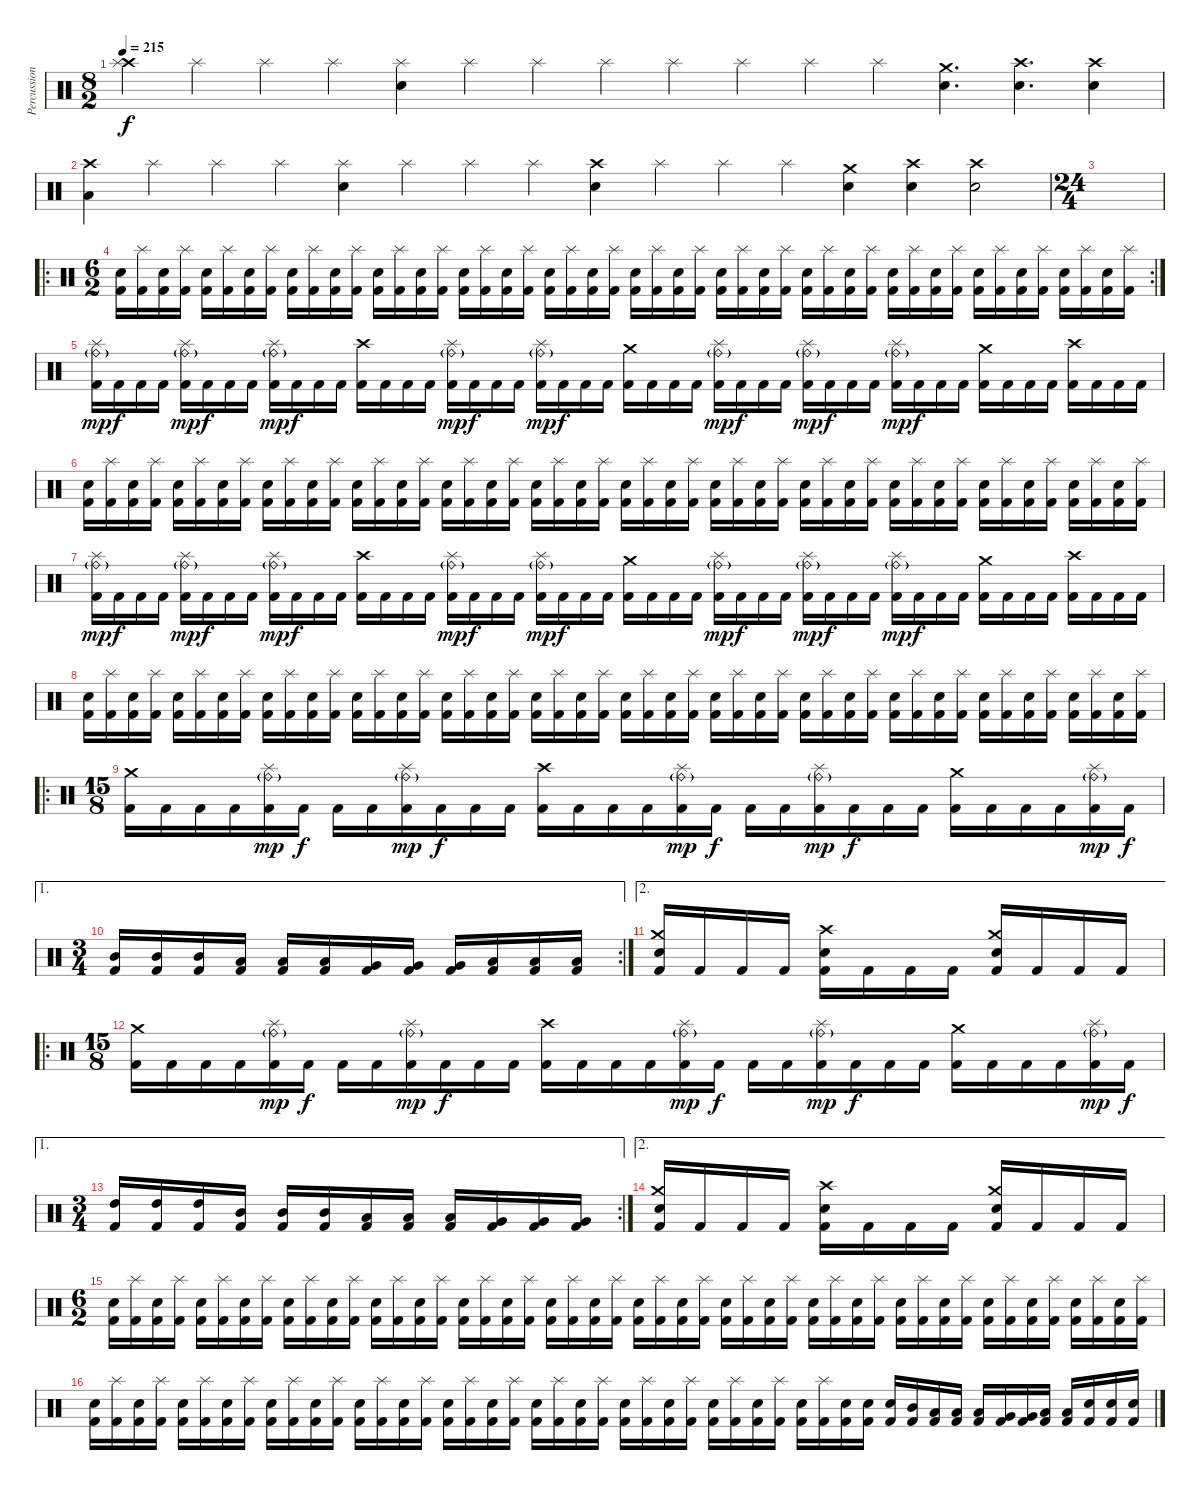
\track ("Percussions" "Percussion") {instrument percussion}
\staff {score}
\articulation defaults
\ts (8 2)
\tempo 215
\clef neutral
\ks c
("Crash high (hit)" "Splash (hit)").4{dy f} "Splash (hit)".4 "Splash (hit)".4 "Splash (hit)".4 ("Splash (hit)" "Electric Snare (hit)").4 "Splash (hit)".4 "Splash (hit)".4 "Splash (hit)".4 "Splash (hit)".4 "Splash (hit)".4 "Splash (hit)".4 "Splash (hit)".4 ("Crash medium (hit)" "Electric Snare (hit)").4{d} ("Crash high (hit)" "Electric Snare (hit)").4{d} ("Crash high (hit)" "Electric Snare (hit)").4 |
("Crash high (hit)" "Low Floor Tom (hit)").4 "Splash (hit)".4 "Splash (hit)".4 "Splash (hit)".4 ("Splash (hit)" "Electric Snare (hit)").4 "Splash (hit)".4 "Splash (hit)".4 "Splash (hit)".4 ("Crash high (hit)" "Electric Snare (hit)").4 "Splash (hit)".4 "Splash (hit)".4 "Splash (hit)".4 ("Crash medium (hit)" "Electric Snare (hit)").4 ("Crash high (hit)" "Electric Snare (hit)").4 ("Crash high (hit)" "Electric Snare (hit)").2 |
\ts (24 4)
|
\ro
\rc 2
\ts (6 2)
("Electric Snare (hit)" "Kick (hit) 2").16 ("Splash (hit)" "Kick (hit) 2").16 ("Electric Snare (hit)" "Kick (hit) 2").16 ("Splash (hit)" "Kick (hit) 2").16 ("Electric Snare (hit)" "Kick (hit) 2").16 ("Splash (hit)" "Kick (hit) 2").16 ("Electric Snare (hit)" "Kick (hit) 2").16 ("Splash (hit)" "Kick (hit) 2").16 ("Electric Snare (hit)" "Kick (hit) 2").16 ("Splash (hit)" "Kick (hit) 2").16 ("Electric Snare (hit)" "Kick (hit) 2").16 ("Splash (hit)" "Kick (hit) 2").16 ("Electric Snare (hit)" "Kick (hit) 2").16 ("Splash (hit)" "Kick (hit) 2").16 ("Electric Snare (hit)" "Kick (hit) 2").16 ("Splash (hit)" "Kick (hit) 2").16 ("Electric Snare (hit)" "Kick (hit) 2").16 ("Splash (hit)" "Kick (hit) 2").16 ("Electric Snare (hit)" "Kick (hit) 2").16 ("Splash (hit)" "Kick (hit) 2").16 ("Electric Snare (hit)" "Kick (hit) 2").16 ("Splash (hit)" "Kick (hit) 2").16 ("Electric Snare (hit)" "Kick (hit) 2").16 ("Splash (hit)" "Kick (hit) 2").16 ("Electric Snare (hit)" "Kick (hit) 2").16 ("Splash (hit)" "Kick (hit) 2").16 ("Electric Snare (hit)" "Kick (hit) 2").16 ("Splash (hit)" "Kick (hit) 2").16 ("Electric Snare (hit)" "Kick (hit) 2").16 ("Splash (hit)" "Kick (hit) 2").16 ("Electric Snare (hit)" "Kick (hit) 2").16 ("Splash (hit)" "Kick (hit) 2").16 ("Electric Snare (hit)" "Kick (hit) 2").16 ("Splash (hit)" "Kick (hit) 2").16 ("Electric Snare (hit)" "Kick (hit) 2").16 ("Splash (hit)" "Kick (hit) 2").16 ("Electric Snare (hit)" "Kick (hit) 2").16 ("Splash (hit)" "Kick (hit) 2").16 ("Electric Snare (hit)" "Kick (hit) 2").16 ("Splash (hit)" "Kick (hit) 2").16 ("Electric Snare (hit)" "Kick (hit) 2").16 ("Splash (hit)" "Kick (hit) 2").16 ("Electric Snare (hit)" "Kick (hit) 2").16 ("Splash (hit)" "Kick (hit) 2").16 ("Electric Snare (hit)" "Kick (hit) 2").16 ("Splash (hit)" "Kick (hit) 2").16 ("Electric Snare (hit)" "Kick (hit) 2").16 ("Splash (hit)" "Kick (hit) 2").16 |
("Splash (hit)" "Ride (bell)"{g} "Kick (hit) 2").16{dy mp} "Kick (hit) 2".16{dy f} "Kick (hit) 2".16 "Kick (hit) 2".16 ("Splash (hit)" "Ride (bell)"{g} "Kick (hit) 2").16{dy mp} "Kick (hit) 2".16{dy f} "Kick (hit) 2".16 "Kick (hit) 2".16 ("Splash (hit)" "Ride (bell)"{g} "Kick (hit) 2").16{dy mp} "Kick (hit) 2".16{dy f} "Kick (hit) 2".16 "Kick (hit) 2".16 ("Crash high (hit)" "Kick (hit) 2").16 "Kick (hit) 2".16 "Kick (hit) 2".16 "Kick (hit) 2".16 ("Splash (hit)" "Ride (bell)"{g} "Kick (hit) 2").16{dy mp} "Kick (hit) 2".16{dy f} "Kick (hit) 2".16 "Kick (hit) 2".16 ("Splash (hit)" "Ride (bell)"{g} "Kick (hit) 2").16{dy mp} "Kick (hit) 2".16{dy f} "Kick (hit) 2".16 "Kick (hit) 2".16 ("Crash medium (hit)" "Kick (hit) 2").16 "Kick (hit) 2".16 "Kick (hit) 2".16 "Kick (hit) 2".16 ("Splash (hit)" "Ride (bell)"{g} "Kick (hit) 2").16{dy mp} "Kick (hit) 2".16{dy f} "Kick (hit) 2".16 "Kick (hit) 2".16 ("Splash (hit)" "Ride (bell)"{g} "Kick (hit) 2").16{dy mp} "Kick (hit) 2".16{dy f} "Kick (hit) 2".16 "Kick (hit) 2".16 ("Splash (hit)" "Ride (bell)"{g} "Kick (hit) 2").16{dy mp} "Kick (hit) 2".16{dy f} "Kick (hit) 2".16 "Kick (hit) 2".16 ("Crash medium (hit)" "Kick (hit) 2").16 "Kick (hit) 2".16 "Kick (hit) 2".16 "Kick (hit) 2".16 ("Crash high (hit)" "Kick (hit) 2").16 "Kick (hit) 2".16 "Kick (hit) 2".16 "Kick (hit) 2".16 |
("Electric Snare (hit)" "Kick (hit) 2").16 ("Splash (hit)" "Kick (hit) 2").16 ("Electric Snare (hit)" "Kick (hit) 2").16 ("Splash (hit)" "Kick (hit) 2").16 ("Electric Snare (hit)" "Kick (hit) 2").16 ("Splash (hit)" "Kick (hit) 2").16 ("Electric Snare (hit)" "Kick (hit) 2").16 ("Splash (hit)" "Kick (hit) 2").16 ("Electric Snare (hit)" "Kick (hit) 2").16 ("Splash (hit)" "Kick (hit) 2").16 ("Electric Snare (hit)" "Kick (hit) 2").16 ("Splash (hit)" "Kick (hit) 2").16 ("Electric Snare (hit)" "Kick (hit) 2").16 ("Splash (hit)" "Kick (hit) 2").16 ("Electric Snare (hit)" "Kick (hit) 2").16 ("Splash (hit)" "Kick (hit) 2").16 ("Electric Snare (hit)" "Kick (hit) 2").16 ("Splash (hit)" "Kick (hit) 2").16 ("Electric Snare (hit)" "Kick (hit) 2").16 ("Splash (hit)" "Kick (hit) 2").16 ("Electric Snare (hit)" "Kick (hit) 2").16 ("Splash (hit)" "Kick (hit) 2").16 ("Electric Snare (hit)" "Kick (hit) 2").16 ("Splash (hit)" "Kick (hit) 2").16 ("Electric Snare (hit)" "Kick (hit) 2").16 ("Splash (hit)" "Kick (hit) 2").16 ("Electric Snare (hit)" "Kick (hit) 2").16 ("Splash (hit)" "Kick (hit) 2").16 ("Electric Snare (hit)" "Kick (hit) 2").16 ("Splash (hit)" "Kick (hit) 2").16 ("Electric Snare (hit)" "Kick (hit) 2").16 ("Splash (hit)" "Kick (hit) 2").16 ("Electric Snare (hit)" "Kick (hit) 2").16 ("Splash (hit)" "Kick (hit) 2").16 ("Electric Snare (hit)" "Kick (hit) 2").16 ("Splash (hit)" "Kick (hit) 2").16 ("Electric Snare (hit)" "Kick (hit) 2").16 ("Splash (hit)" "Kick (hit) 2").16 ("Electric Snare (hit)" "Kick (hit) 2").16 ("Splash (hit)" "Kick (hit) 2").16 ("Electric Snare (hit)" "Kick (hit) 2").16 ("Splash (hit)" "Kick (hit) 2").16 ("Electric Snare (hit)" "Kick (hit) 2").16 ("Splash (hit)" "Kick (hit) 2").16 ("Electric Snare (hit)" "Kick (hit) 2").16 ("Splash (hit)" "Kick (hit) 2").16 ("Electric Snare (hit)" "Kick (hit) 2").16 ("Splash (hit)" "Kick (hit) 2").16 |
("Splash (hit)" "Ride (bell)"{g} "Kick (hit) 2").16{dy mp} "Kick (hit) 2".16{dy f} "Kick (hit) 2".16 "Kick (hit) 2".16 ("Splash (hit)" "Ride (bell)"{g} "Kick (hit) 2").16{dy mp} "Kick (hit) 2".16{dy f} "Kick (hit) 2".16 "Kick (hit) 2".16 ("Splash (hit)" "Ride (bell)"{g} "Kick (hit) 2").16{dy mp} "Kick (hit) 2".16{dy f} "Kick (hit) 2".16 "Kick (hit) 2".16 ("Crash high (hit)" "Kick (hit) 2").16 "Kick (hit) 2".16 "Kick (hit) 2".16 "Kick (hit) 2".16 ("Splash (hit)" "Ride (bell)"{g} "Kick (hit) 2").16{dy mp} "Kick (hit) 2".16{dy f} "Kick (hit) 2".16 "Kick (hit) 2".16 ("Splash (hit)" "Ride (bell)"{g} "Kick (hit) 2").16{dy mp} "Kick (hit) 2".16{dy f} "Kick (hit) 2".16 "Kick (hit) 2".16 ("Crash medium (hit)" "Kick (hit) 2").16 "Kick (hit) 2".16 "Kick (hit) 2".16 "Kick (hit) 2".16 ("Splash (hit)" "Ride (bell)"{g} "Kick (hit) 2").16{dy mp} "Kick (hit) 2".16{dy f} "Kick (hit) 2".16 "Kick (hit) 2".16 ("Splash (hit)" "Ride (bell)"{g} "Kick (hit) 2").16{dy mp} "Kick (hit) 2".16{dy f} "Kick (hit) 2".16 "Kick (hit) 2".16 ("Splash (hit)" "Ride (bell)"{g} "Kick (hit) 2").16{dy mp} "Kick (hit) 2".16{dy f} "Kick (hit) 2".16 "Kick (hit) 2".16 ("Crash medium (hit)" "Kick (hit) 2").16 "Kick (hit) 2".16 "Kick (hit) 2".16 "Kick (hit) 2".16 ("Crash high (hit)" "Kick (hit) 2").16 "Kick (hit) 2".16 "Kick (hit) 2".16 "Kick (hit) 2".16 |
("Electric Snare (hit)" "Kick (hit) 2").16 ("Splash (hit)" "Kick (hit) 2").16 ("Electric Snare (hit)" "Kick (hit) 2").16 ("Splash (hit)" "Kick (hit) 2").16 ("Electric Snare (hit)" "Kick (hit) 2").16 ("Splash (hit)" "Kick (hit) 2").16 ("Electric Snare (hit)" "Kick (hit) 2").16 ("Splash (hit)" "Kick (hit) 2").16 ("Electric Snare (hit)" "Kick (hit) 2").16 ("Splash (hit)" "Kick (hit) 2").16 ("Electric Snare (hit)" "Kick (hit) 2").16 ("Splash (hit)" "Kick (hit) 2").16 ("Electric Snare (hit)" "Kick (hit) 2").16 ("Splash (hit)" "Kick (hit) 2").16 ("Electric Snare (hit)" "Kick (hit) 2").16 ("Splash (hit)" "Kick (hit) 2").16 ("Electric Snare (hit)" "Kick (hit) 2").16 ("Splash (hit)" "Kick (hit) 2").16 ("Electric Snare (hit)" "Kick (hit) 2").16 ("Splash (hit)" "Kick (hit) 2").16 ("Electric Snare (hit)" "Kick (hit) 2").16 ("Splash (hit)" "Kick (hit) 2").16 ("Electric Snare (hit)" "Kick (hit) 2").16 ("Splash (hit)" "Kick (hit) 2").16 ("Electric Snare (hit)" "Kick (hit) 2").16 ("Splash (hit)" "Kick (hit) 2").16 ("Electric Snare (hit)" "Kick (hit) 2").16 ("Splash (hit)" "Kick (hit) 2").16 ("Electric Snare (hit)" "Kick (hit) 2").16 ("Splash (hit)" "Kick (hit) 2").16 ("Electric Snare (hit)" "Kick (hit) 2").16 ("Splash (hit)" "Kick (hit) 2").16 ("Electric Snare (hit)" "Kick (hit) 2").16 ("Splash (hit)" "Kick (hit) 2").16 ("Electric Snare (hit)" "Kick (hit) 2").16 ("Splash (hit)" "Kick (hit) 2").16 ("Electric Snare (hit)" "Kick (hit) 2").16 ("Splash (hit)" "Kick (hit) 2").16 ("Electric Snare (hit)" "Kick (hit) 2").16 ("Splash (hit)" "Kick (hit) 2").16 ("Electric Snare (hit)" "Kick (hit) 2").16 ("Splash (hit)" "Kick (hit) 2").16 ("Electric Snare (hit)" "Kick (hit) 2").16 ("Splash (hit)" "Kick (hit) 2").16 ("Electric Snare (hit)" "Kick (hit) 2").16 ("Splash (hit)" "Kick (hit) 2").16 ("Electric Snare (hit)" "Kick (hit) 2").16 ("Splash (hit)" "Kick (hit) 2").16 |
\ro
\ts (15 8)
("Crash medium (hit)" "Kick (hit) 2").16 "Kick (hit) 2".16 "Kick (hit) 2".16 "Kick (hit) 2".16 ("Splash (hit)" "Ride (bell)"{g} "Kick (hit) 2").16{dy mp} "Kick (hit) 2".16{dy f} "Kick (hit) 2".16 "Kick (hit) 2".16 ("Splash (hit)" "Ride (bell)"{g} "Kick (hit) 2").16{dy mp} "Kick (hit) 2".16{dy f} "Kick (hit) 2".16 "Kick (hit) 2".16 ("Crash high (hit)" "Kick (hit) 2").16 "Kick (hit) 2".16 "Kick (hit) 2".16 "Kick (hit) 2".16 ("Splash (hit)" "Ride (bell)"{g} "Kick (hit) 2").16{dy mp} "Kick (hit) 2".16{dy f} "Kick (hit) 2".16 "Kick (hit) 2".16 ("Splash (hit)" "Ride (bell)"{g} "Kick (hit) 2").16{dy mp} "Kick (hit) 2".16{dy f} "Kick (hit) 2".16 "Kick (hit) 2".16 ("Crash medium (hit)" "Kick (hit) 2").16 "Kick (hit) 2".16 "Kick (hit) 2".16 "Kick (hit) 2".16 ("Splash (hit)" "Ride (bell)"{g} "Kick (hit) 2").16{dy mp} "Kick (hit) 2".16{dy f} |
\ae 1
\rc 2
\ts (3 4)
("Mid Tom (hit)" "Kick (hit) 2").16 ("Mid Tom (hit)" "Kick (hit) 2").16 ("Mid Tom (hit)" "Kick (hit) 2").16 ("Low Tom (hit)" "Kick (hit) 2").16 ("Low Tom (hit)" "Kick (hit) 2").16 ("Low Tom (hit)" "Kick (hit) 2").16 ("Very Low Tom (hit)" "Kick (hit) 2").16 ("Very Low Tom (hit)" "Kick (hit) 2").16 ("Very Low Tom (hit)" "Kick (hit) 2").16 ("Low Floor Tom (hit)" "Kick (hit) 2").16 ("Low Floor Tom (hit)" "Kick (hit) 2").16 ("Low Floor Tom (hit)" "Kick (hit) 2").16 |
\ae 2
("Crash medium (hit)" "Electric Snare (hit)" "Kick (hit) 2").16 "Kick (hit) 2".16 "Kick (hit) 2".16 "Kick (hit) 2".16 ("Crash high (hit)" "Electric Snare (hit)" "Kick (hit) 2").16 "Kick (hit) 2".16 "Kick (hit) 2".16 "Kick (hit) 2".16 ("Crash medium (hit)" "Electric Snare (hit)" "Kick (hit) 2").16 "Kick (hit) 2".16 "Kick (hit) 2".16 "Kick (hit) 2".16 |
\ro
\ts (15 8)
("Crash medium (hit)" "Kick (hit) 2").16 "Kick (hit) 2".16 "Kick (hit) 2".16 "Kick (hit) 2".16 ("Splash (hit)" "Ride (bell)"{g} "Kick (hit) 2").16{dy mp} "Kick (hit) 2".16{dy f} "Kick (hit) 2".16 "Kick (hit) 2".16 ("Splash (hit)" "Ride (bell)"{g} "Kick (hit) 2").16{dy mp} "Kick (hit) 2".16{dy f} "Kick (hit) 2".16 "Kick (hit) 2".16 ("Crash high (hit)" "Kick (hit) 2").16 "Kick (hit) 2".16 "Kick (hit) 2".16 "Kick (hit) 2".16 ("Splash (hit)" "Ride (bell)"{g} "Kick (hit) 2").16{dy mp} "Kick (hit) 2".16{dy f} "Kick (hit) 2".16 "Kick (hit) 2".16 ("Splash (hit)" "Ride (bell)"{g} "Kick (hit) 2").16{dy mp} "Kick (hit) 2".16{dy f} "Kick (hit) 2".16 "Kick (hit) 2".16 ("Crash medium (hit)" "Kick (hit) 2").16 "Kick (hit) 2".16 "Kick (hit) 2".16 "Kick (hit) 2".16 ("Splash (hit)" "Ride (bell)"{g} "Kick (hit) 2").16{dy mp} "Kick (hit) 2".16{dy f} |
\ae 1
\rc 2
\ts (3 4)
("High Tom (hit)" "Kick (hit) 2").16 ("High Tom (hit)" "Kick (hit) 2").16 ("High Tom (hit)" "Kick (hit) 2").16 ("Mid Tom (hit)" "Kick (hit) 2").16 ("Mid Tom (hit)" "Kick (hit) 2").16 ("Mid Tom (hit)" "Kick (hit) 2").16 ("Low Tom (hit)" "Kick (hit) 2").16 ("Low Tom (hit)" "Kick (hit) 2").16 ("Low Tom (hit)" "Kick (hit) 2").16 ("Very Low Tom (hit)" "Kick (hit) 2").16 ("Very Low Tom (hit)" "Kick (hit) 2").16 ("Very Low Tom (hit)" "Kick (hit) 2").16 |
\ae 2
("Crash medium (hit)" "Electric Snare (hit)" "Kick (hit) 2").16 "Kick (hit) 2".16 "Kick (hit) 2".16 "Kick (hit) 2".16 ("Crash high (hit)" "Electric Snare (hit)" "Kick (hit) 2").16 "Kick (hit) 2".16 "Kick (hit) 2".16 "Kick (hit) 2".16 ("Crash medium (hit)" "Electric Snare (hit)" "Kick (hit) 2").16 "Kick (hit) 2".16 "Kick (hit) 2".16 "Kick (hit) 2".16 |
\ts (6 2)
("Electric Snare (hit)" "Kick (hit) 2").16 ("Splash (hit)" "Kick (hit) 2").16 ("Electric Snare (hit)" "Kick (hit) 2").16 ("Splash (hit)" "Kick (hit) 2").16 ("Electric Snare (hit)" "Kick (hit) 2").16 ("Splash (hit)" "Kick (hit) 2").16 ("Electric Snare (hit)" "Kick (hit) 2").16 ("Splash (hit)" "Kick (hit) 2").16 ("Electric Snare (hit)" "Kick (hit) 2").16 ("Splash (hit)" "Kick (hit) 2").16 ("Electric Snare (hit)" "Kick (hit) 2").16 ("Splash (hit)" "Kick (hit) 2").16 ("Electric Snare (hit)" "Kick (hit) 2").16 ("Splash (hit)" "Kick (hit) 2").16 ("Electric Snare (hit)" "Kick (hit) 2").16 ("Splash (hit)" "Kick (hit) 2").16 ("Electric Snare (hit)" "Kick (hit) 2").16 ("Splash (hit)" "Kick (hit) 2").16 ("Electric Snare (hit)" "Kick (hit) 2").16 ("Splash (hit)" "Kick (hit) 2").16 ("Electric Snare (hit)" "Kick (hit) 2").16 ("Splash (hit)" "Kick (hit) 2").16 ("Electric Snare (hit)" "Kick (hit) 2").16 ("Splash (hit)" "Kick (hit) 2").16 ("Electric Snare (hit)" "Kick (hit) 2").16 ("Splash (hit)" "Kick (hit) 2").16 ("Electric Snare (hit)" "Kick (hit) 2").16 ("Splash (hit)" "Kick (hit) 2").16 ("Electric Snare (hit)" "Kick (hit) 2").16 ("Splash (hit)" "Kick (hit) 2").16 ("Electric Snare (hit)" "Kick (hit) 2").16 ("Splash (hit)" "Kick (hit) 2").16 ("Electric Snare (hit)" "Kick (hit) 2").16 ("Splash (hit)" "Kick (hit) 2").16 ("Electric Snare (hit)" "Kick (hit) 2").16 ("Splash (hit)" "Kick (hit) 2").16 ("Electric Snare (hit)" "Kick (hit) 2").16 ("Splash (hit)" "Kick (hit) 2").16 ("Electric Snare (hit)" "Kick (hit) 2").16 ("Splash (hit)" "Kick (hit) 2").16 ("Electric Snare (hit)" "Kick (hit) 2").16 ("Splash (hit)" "Kick (hit) 2").16 ("Electric Snare (hit)" "Kick (hit) 2").16 ("Splash (hit)" "Kick (hit) 2").16 ("Electric Snare (hit)" "Kick (hit) 2").16 ("Splash (hit)" "Kick (hit) 2").16 ("Electric Snare (hit)" "Kick (hit) 2").16 ("Splash (hit)" "Kick (hit) 2").16 |
("Electric Snare (hit)" "Kick (hit) 2").16 ("Splash (hit)" "Kick (hit) 2").16 ("Electric Snare (hit)" "Kick (hit) 2").16 ("Splash (hit)" "Kick (hit) 2").16 ("Electric Snare (hit)" "Kick (hit) 2").16 ("Splash (hit)" "Kick (hit) 2").16 ("Electric Snare (hit)" "Kick (hit) 2").16 ("Splash (hit)" "Kick (hit) 2").16 ("Electric Snare (hit)" "Kick (hit) 2").16 ("Splash (hit)" "Kick (hit) 2").16 ("Electric Snare (hit)" "Kick (hit) 2").16 ("Splash (hit)" "Kick (hit) 2").16 ("Electric Snare (hit)" "Kick (hit) 2").16 ("Splash (hit)" "Kick (hit) 2").16 ("Electric Snare (hit)" "Kick (hit) 2").16 ("Splash (hit)" "Kick (hit) 2").16 ("Electric Snare (hit)" "Kick (hit) 2").16 ("Splash (hit)" "Kick (hit) 2").16 ("Electric Snare (hit)" "Kick (hit) 2").16 ("Splash (hit)" "Kick (hit) 2").16 ("Electric Snare (hit)" "Kick (hit) 2").16 ("Splash (hit)" "Kick (hit) 2").16 ("Electric Snare (hit)" "Kick (hit) 2").16 ("Splash (hit)" "Kick (hit) 2").16 ("Electric Snare (hit)" "Kick (hit) 2").16 ("Splash (hit)" "Kick (hit) 2").16 ("Electric Snare (hit)" "Kick (hit) 2").16 ("Splash (hit)" "Kick (hit) 2").16 ("Electric Snare (hit)" "Kick (hit) 2").16 ("Splash (hit)" "Kick (hit) 2").16 ("Electric Snare (hit)" "Kick (hit) 2").16 ("Splash (hit)" "Kick (hit) 2").16 ("Electric Snare (hit)" "Kick (hit) 2").16 ("Splash (hit)" "Kick (hit) 2").16 ("Electric Snare (hit)" "Kick (hit) 2").16 ("Electric Snare (hit)" "Kick (hit) 2").16 ("Electric Snare (hit)" "Kick (hit) 2").16 ("Mid Tom (hit)" "Kick (hit) 2").16 ("Low Tom (hit)" "Kick (hit) 2").16 ("Low Tom (hit)" "Kick (hit) 2").16 ("Low Tom (hit)" "Kick (hit) 2").16 ("Very Low Tom (hit)" "Kick (hit) 2").16 ("Very Low Tom (hit)" "Kick (hit) 2").16 ("Low Floor Tom (hit)" "Kick (hit) 2").16 ("Low Floor Tom (hit)" "Kick (hit) 2").16 ("Electric Snare (hit)" "Kick (hit) 2").16 ("Electric Snare (hit)" "Kick (hit) 2").16 ("Electric Snare (hit)" "Kick (hit) 2").16
